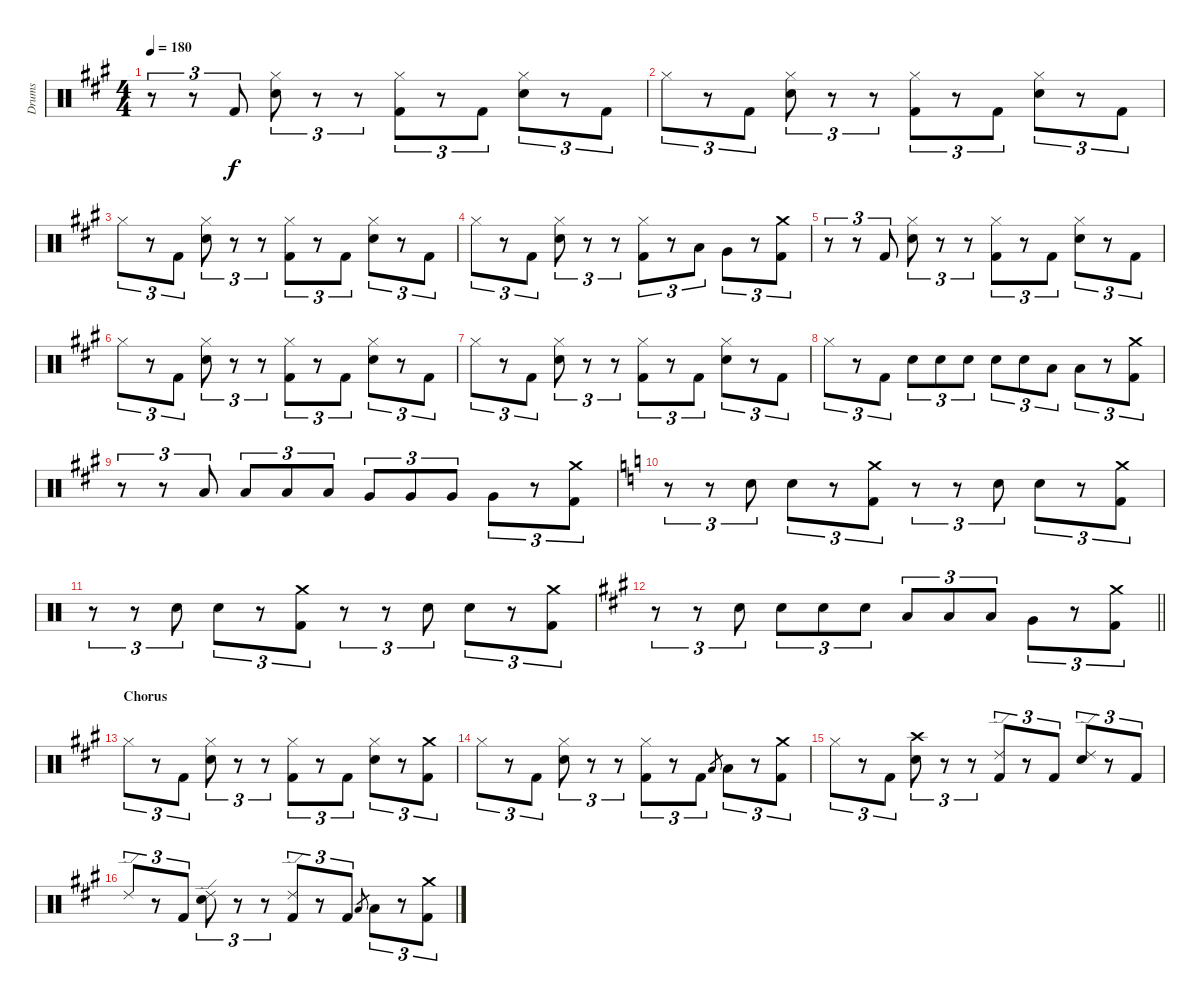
\track ("Drums" "Drums") {instrument percussion}
\staff {score}
\articulation defaults
\ts (4 4)
\tempo 180
\clef neutral
\ks a
r.8{tu (3 2) dy f} r.8{tu (3 2)} "Kick (hit) 2".8{tu (3 2)} ("Hi-Hat (closed)" "Snare (hit) 2").8{tu (3 2)} r.8{tu (3 2)} r.8{tu (3 2)} ("Hi-Hat (closed)" "Kick (hit) 2").8{tu (3 2)} r.8{tu (3 2)} "Kick (hit) 2".8{tu (3 2)} ("Hi-Hat (closed)" "Snare (hit) 2").8{tu (3 2)} r.8{tu (3 2)} "Kick (hit) 2".8{tu (3 2)} |
"Hi-Hat (closed)".8{tu (3 2)} r.8{tu (3 2)} "Kick (hit) 2".8{tu (3 2)} ("Hi-Hat (closed)" "Snare (hit) 2").8{tu (3 2)} r.8{tu (3 2)} r.8{tu (3 2)} ("Hi-Hat (closed)" "Kick (hit) 2").8{tu (3 2)} r.8{tu (3 2)} "Kick (hit) 2".8{tu (3 2)} ("Hi-Hat (closed)" "Snare (hit) 2").8{tu (3 2)} r.8{tu (3 2)} "Kick (hit) 2".8{tu (3 2)} |
"Hi-Hat (closed)".8{tu (3 2)} r.8{tu (3 2)} "Kick (hit) 2".8{tu (3 2)} ("Hi-Hat (closed)" "Snare (hit) 2").8{tu (3 2)} r.8{tu (3 2)} r.8{tu (3 2)} ("Hi-Hat (closed)" "Kick (hit) 2").8{tu (3 2)} r.8{tu (3 2)} "Kick (hit) 2".8{tu (3 2)} ("Hi-Hat (closed)" "Snare (hit) 2").8{tu (3 2)} r.8{tu (3 2)} "Kick (hit) 2".8{tu (3 2)} |
"Hi-Hat (closed)".8{tu (3 2)} r.8{tu (3 2)} "Kick (hit) 2".8{tu (3 2)} ("Hi-Hat (closed)" "Snare (hit) 2").8{tu (3 2)} r.8{tu (3 2)} r.8{tu (3 2)} ("Hi-Hat (closed)" "Kick (hit) 2").8{tu (3 2)} r.8{tu (3 2)} "Low Tom (hit)".8{tu (3 2)} "Very Low Tom (hit)".8{tu (3 2)} r.8{tu (3 2)} ("Crash medium (hit)" "Kick (hit) 2").8{tu (3 2)} |
r.8{tu (3 2)} r.8{tu (3 2)} "Kick (hit) 2".8{tu (3 2)} ("Hi-Hat (closed)" "Snare (hit) 2").8{tu (3 2)} r.8{tu (3 2)} r.8{tu (3 2)} ("Hi-Hat (closed)" "Kick (hit) 2").8{tu (3 2)} r.8{tu (3 2)} "Kick (hit) 2".8{tu (3 2)} ("Hi-Hat (closed)" "Snare (hit) 2").8{tu (3 2)} r.8{tu (3 2)} "Kick (hit) 2".8{tu (3 2)} |
"Hi-Hat (closed)".8{tu (3 2)} r.8{tu (3 2)} "Kick (hit) 2".8{tu (3 2)} ("Hi-Hat (closed)" "Snare (hit) 2").8{tu (3 2)} r.8{tu (3 2)} r.8{tu (3 2)} ("Hi-Hat (closed)" "Kick (hit) 2").8{tu (3 2)} r.8{tu (3 2)} "Kick (hit) 2".8{tu (3 2)} ("Hi-Hat (closed)" "Snare (hit) 2").8{tu (3 2)} r.8{tu (3 2)} "Kick (hit) 2".8{tu (3 2)} |
"Hi-Hat (closed)".8{tu (3 2)} r.8{tu (3 2)} "Kick (hit) 2".8{tu (3 2)} ("Hi-Hat (closed)" "Snare (hit) 2").8{tu (3 2)} r.8{tu (3 2)} r.8{tu (3 2)} ("Hi-Hat (closed)" "Kick (hit) 2").8{tu (3 2)} r.8{tu (3 2)} "Kick (hit) 2".8{tu (3 2)} ("Hi-Hat (closed)" "Snare (hit) 2").8{tu (3 2)} r.8{tu (3 2)} "Kick (hit) 2".8{tu (3 2)} |
"Hi-Hat (closed)".8{tu (3 2)} r.8{tu (3 2)} "Kick (hit) 2".8{tu (3 2)} "Snare (hit) 2".8{tu (3 2)} "Snare (hit) 2".8{tu (3 2)} "Snare (hit) 2".8{tu (3 2)} "Snare (hit) 2".8{tu (3 2)} "Snare (hit) 2".8{tu (3 2)} "Low Tom (hit)".8{tu (3 2)} "Low Tom (hit)".8{tu (3 2)} r.8{tu (3 2)} ("Crash medium (hit)" "Kick (hit) 2").8{tu (3 2)} |
r.8{tu (3 2)} r.8{tu (3 2)} "Low Tom (hit)".8{tu (3 2)} "Low Tom (hit)".8{tu (3 2)} "Low Tom (hit)".8{tu (3 2)} "Low Tom (hit)".8{tu (3 2)} "Very Low Tom (hit)".8{tu (3 2)} "Very Low Tom (hit)".8{tu (3 2)} "Very Low Tom (hit)".8{tu (3 2)} "Very Low Tom (hit)".8{tu (3 2)} r.8{tu (3 2)} ("Crash medium (hit)" "Kick (hit) 2").8{tu (3 2)} |
\ks c
r.8{tu (3 2)} r.8{tu (3 2)} "Snare (hit) 2".8{tu (3 2)} "Snare (hit) 2".8{tu (3 2)} r.8{tu (3 2)} ("Crash medium (hit)" "Kick (hit) 2").8{tu (3 2)} r.8{tu (3 2)} r.8{tu (3 2)} "Snare (hit) 2".8{tu (3 2)} "Snare (hit) 2".8{tu (3 2)} r.8{tu (3 2)} ("Crash medium (hit)" "Kick (hit) 2").8{tu (3 2)} |
r.8{tu (3 2)} r.8{tu (3 2)} "Snare (hit) 2".8{tu (3 2)} "Snare (hit) 2".8{tu (3 2)} r.8{tu (3 2)} ("Crash medium (hit)" "Kick (hit) 2").8{tu (3 2)} r.8{tu (3 2)} r.8{tu (3 2)} "Snare (hit) 2".8{tu (3 2)} "Snare (hit) 2".8{tu (3 2)} r.8{tu (3 2)} ("Crash medium (hit)" "Kick (hit) 2").8{tu (3 2)} |
\barLineRight lightlight
\ks a
r.8{tu (3 2)} r.8{tu (3 2)} "Snare (hit) 2".8{tu (3 2)} "Snare (hit) 2".8{tu (3 2)} "Snare (hit) 2".8{tu (3 2)} "Snare (hit) 2".8{tu (3 2)} "Low Tom (hit)".8{tu (3 2)} "Low Tom (hit)".8{tu (3 2)} "Low Tom (hit)".8{tu (3 2)} "Very Low Tom (hit)".8{tu (3 2)} r.8{tu (3 2)} ("Crash medium (hit)" "Kick (hit) 2").8{tu (3 2)} |
\section ("" "Chorus")
"Hi-Hat (closed)".8{tu (3 2)} r.8{tu (3 2)} "Kick (hit) 2".8{tu (3 2)} ("Hi-Hat (closed)" "Snare (hit) 2").8{tu (3 2)} r.8{tu (3 2)} r.8{tu (3 2)} ("Hi-Hat (closed)" "Kick (hit) 2").8{tu (3 2)} r.8{tu (3 2)} "Kick (hit) 2".8{tu (3 2)} ("Hi-Hat (closed)" "Snare (hit) 2").8{tu (3 2)} r.8{tu (3 2)} ("Crash medium (hit)" "Kick (hit) 2").8{tu (3 2)} |
"Hi-Hat (closed)".8{tu (3 2)} r.8{tu (3 2)} "Kick (hit) 2".8{tu (3 2)} ("Hi-Hat (closed)" "Snare (hit) 2").8{tu (3 2)} r.8{tu (3 2)} r.8{tu (3 2)} ("Hi-Hat (closed)" "Kick (hit) 2").8{tu (3 2)} r.8{tu (3 2)} "Kick (hit) 2".8{tu (3 2)} "Low Tom (hit)".8{gr} "Low Floor Tom (hit)".8{tu (3 2)} r.8{tu (3 2)} ("Crash medium (hit)" "Kick (hit) 2").8{tu (3 2)} |
"Hi-Hat (closed)".8{tu (3 2)} r.8{tu (3 2)} "Kick (hit) 2".8{tu (3 2)} ("Crash high (hit)" "Snare (hit) 2").8{tu (3 2)} r.8{tu (3 2)} r.8{tu (3 2)} ("Ride (edge) 2" "Kick (hit) 2").8{tu (3 2)} r.8{tu (3 2)} "Kick (hit) 2".8{tu (3 2)} ("Ride (edge) 2" "Snare (hit) 2").8{tu (3 2)} r.8{tu (3 2)} "Kick (hit) 2".8{tu (3 2)} |
"Ride (edge) 2".8{tu (3 2)} r.8{tu (3 2)} "Kick (hit) 2".8{tu (3 2)} ("Ride (edge) 2" "Snare (hit) 2").8{tu (3 2)} r.8{tu (3 2)} r.8{tu (3 2)} ("Ride (edge) 2" "Kick (hit) 2").8{tu (3 2)} r.8{tu (3 2)} "Kick (hit) 2".8{tu (3 2)} "Low Tom (hit)".8{gr} "Low Floor Tom (hit)".8{tu (3 2)} r.8{tu (3 2)} ("Crash medium (hit)" "Kick (hit) 2").8{tu (3 2)}
